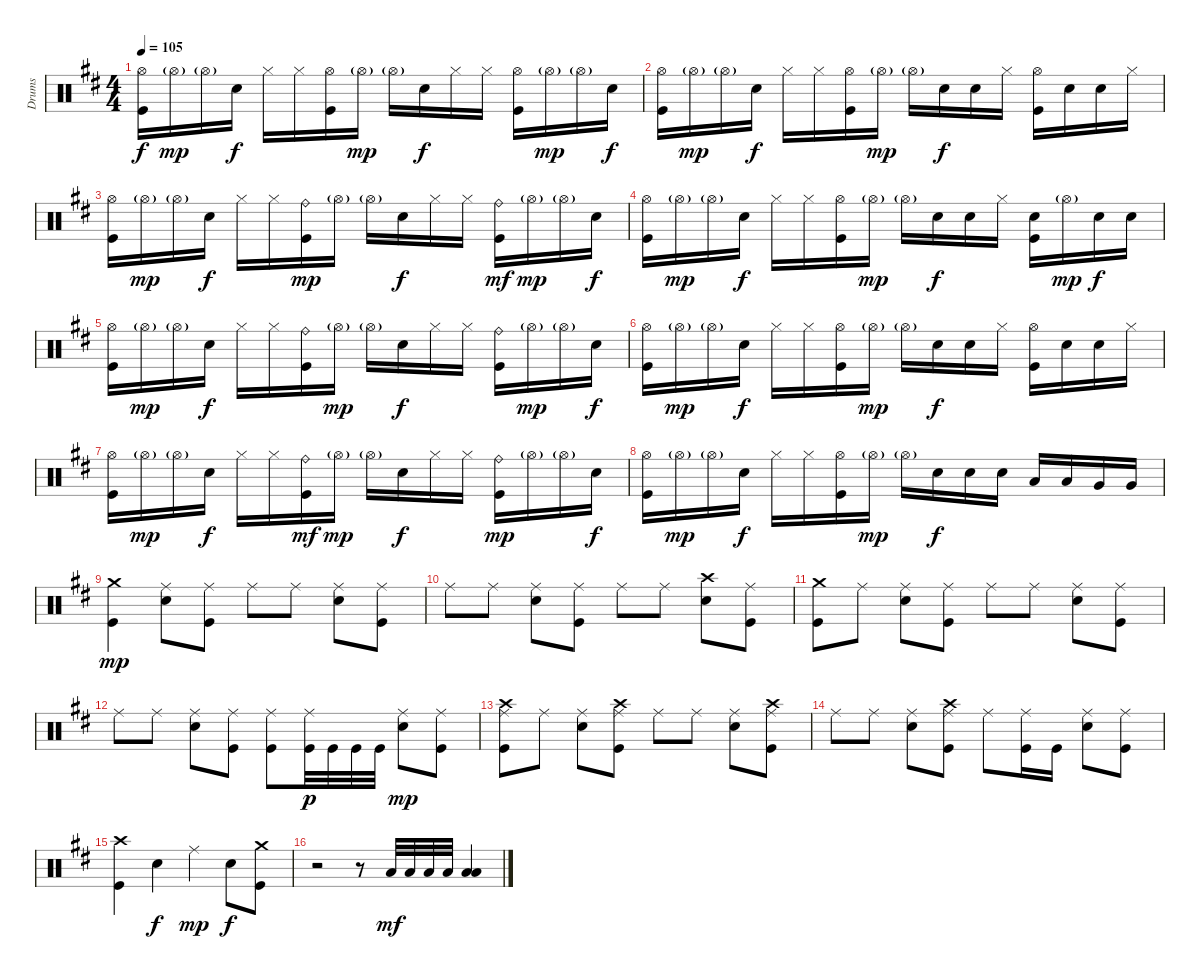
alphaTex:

\track ("Drums" "Drums") {instrument percussion}
\staff {score}
\articulation defaults
\ts (4 4)
\tempo 105
\clef neutral
\ks d
("Hi-Hat (open)" "Kick (hit)").16{dy f} "Hi-Hat (open)"{g}.16{dy mp} "Hi-Hat (open)"{g}.16 "Electric Snare (hit)".16{dy f} "Hi-Hat (closed)".16 "Hi-Hat (closed)".16 ("Hi-Hat (open)" "Kick (hit)").16 "Hi-Hat (open)"{g}.16{dy mp} "Hi-Hat (open)"{g}.16 "Electric Snare (hit)".16{dy f} "Hi-Hat (closed)".16 "Hi-Hat (closed)".16 ("Hi-Hat (open)" "Kick (hit)").16 "Hi-Hat (open)"{g}.16{dy mp} "Hi-Hat (open)"{g}.16 "Electric Snare (hit)".16{dy f} |
("Hi-Hat (open)" "Kick (hit)").16 "Hi-Hat (open)"{g}.16{dy mp} "Hi-Hat (open)"{g}.16 "Electric Snare (hit)".16{dy f} "Hi-Hat (closed)".16 "Hi-Hat (closed)".16 ("Hi-Hat (open)" "Kick (hit)").16 "Hi-Hat (open)"{g}.16{dy mp} "Hi-Hat (open)"{g}.16 "Electric Snare (hit)".16{dy f} "Electric Snare (hit)".16 "Hi-Hat (closed)".16 ("Hi-Hat (open)" "Kick (hit)").16 "Electric Snare (hit)".16 "Electric Snare (hit)".16 "Hi-Hat (closed)".16 |
("Hi-Hat (open)" "Kick (hit)").16 "Hi-Hat (open)"{g}.16{dy mp} "Hi-Hat (open)"{g}.16 "Electric Snare (hit)".16{dy f} "Hi-Hat (closed)".16 "Hi-Hat (closed)".16 ("Ride (bell)" "Kick (hit)").16{dy mp} "Hi-Hat (open)"{g}.16 "Hi-Hat (open)"{g}.16 "Electric Snare (hit)".16{dy f} "Hi-Hat (closed)".16 "Hi-Hat (closed)".16 ("Ride (bell)" "Kick (hit)").16{dy mf} "Hi-Hat (open)"{g}.16{dy mp} "Hi-Hat (open)"{g}.16 "Electric Snare (hit)".16{dy f} |
("Hi-Hat (open)" "Kick (hit)").16 "Hi-Hat (open)"{g}.16{dy mp} "Hi-Hat (open)"{g}.16 "Electric Snare (hit)".16{dy f} "Hi-Hat (closed)".16 "Hi-Hat (closed)".16 ("Hi-Hat (open)" "Kick (hit)").16 "Hi-Hat (open)"{g}.16{dy mp} "Hi-Hat (open)"{g}.16 "Electric Snare (hit)".16{dy f} "Electric Snare (hit)".16 "Hi-Hat (closed)".16 ("Electric Snare (hit)" "Kick (hit)").16 "Hi-Hat (open)"{g}.16{dy mp} "Electric Snare (hit)".16{dy f} "Electric Snare (hit)".16 |
("Hi-Hat (open)" "Kick (hit)").16 "Hi-Hat (open)"{g}.16{dy mp} "Hi-Hat (open)"{g}.16 "Electric Snare (hit)".16{dy f} "Hi-Hat (closed)".16 "Hi-Hat (closed)".16 ("Ride (bell)" "Kick (hit)").16 "Hi-Hat (open)"{g}.16{dy mp} "Hi-Hat (open)"{g}.16 "Electric Snare (hit)".16{dy f} "Hi-Hat (closed)".16 "Hi-Hat (closed)".16 ("Ride (bell)" "Kick (hit)").16 "Hi-Hat (open)"{g}.16{dy mp} "Hi-Hat (open)"{g}.16 "Electric Snare (hit)".16{dy f} |
("Hi-Hat (open)" "Kick (hit)").16 "Hi-Hat (open)"{g}.16{dy mp} "Hi-Hat (open)"{g}.16 "Electric Snare (hit)".16{dy f} "Hi-Hat (closed)".16 "Hi-Hat (closed)".16 ("Hi-Hat (open)" "Kick (hit)").16 "Hi-Hat (open)"{g}.16{dy mp} "Hi-Hat (open)"{g}.16 "Electric Snare (hit)".16{dy f} "Electric Snare (hit)".16 "Hi-Hat (closed)".16 ("Hi-Hat (open)" "Kick (hit)").16 "Electric Snare (hit)".16 "Electric Snare (hit)".16 "Hi-Hat (closed)".16 |
("Hi-Hat (open)" "Kick (hit)").16 "Hi-Hat (open)"{g}.16{dy mp} "Hi-Hat (open)"{g}.16 "Electric Snare (hit)".16{dy f} "Hi-Hat (closed)".16 "Hi-Hat (closed)".16 ("Ride (bell)" "Kick (hit)").16{dy mf} "Hi-Hat (open)"{g}.16{dy mp} "Hi-Hat (open)"{g}.16 "Electric Snare (hit)".16{dy f} "Hi-Hat (closed)".16 "Hi-Hat (closed)".16 ("Ride (bell)" "Kick (hit)").16{dy mp} "Hi-Hat (open)"{g}.16 "Hi-Hat (open)"{g}.16 "Electric Snare (hit)".16{dy f} |
("Hi-Hat (open)" "Kick (hit)").16 "Hi-Hat (open)"{g}.16{dy mp} "Hi-Hat (open)"{g}.16 "Electric Snare (hit)".16{dy f} "Hi-Hat (closed)".16 "Hi-Hat (closed)".16 ("Hi-Hat (open)" "Kick (hit)").16 "Hi-Hat (open)"{g}.16{dy mp} "Hi-Hat (open)"{g}.16 "Electric Snare (hit)".16{dy f} "Electric Snare (hit)".16 "Electric Snare (hit)".16 "Low Tom (hit)".16 "Low Tom (hit)".16 "Very Low Tom (hit)".16 "Very Low Tom (hit)".16 |
("Crash medium (hit)" "Kick (hit)").4{dy mp} ("Ride (middle)" "Electric Snare (hit)").8 ("Ride (middle)" "Kick (hit)").8 "Ride (middle)".8 "Ride (middle)".8 ("Ride (middle)" "Electric Snare (hit)").8 ("Ride (middle)" "Kick (hit)").8 |
"Ride (middle)".8 "Ride (middle)".8 ("Ride (middle)" "Electric Snare (hit)").8 ("Ride (middle)" "Kick (hit)").8 "Ride (middle)".8 "Ride (middle)".8 ("Crash high (hit)" "Electric Snare (hit)").8 ("Ride (middle)" "Kick (hit)").8 |
("Crash medium (hit)" "Kick (hit)").8 "Ride (middle)".8 ("Ride (middle)" "Electric Snare (hit)").8 ("Ride (middle)" "Kick (hit)").8 "Ride (middle)".8 "Ride (middle)".8 ("Ride (middle)" "Electric Snare (hit)").8 ("Ride (middle)" "Kick (hit)").8 |
"Ride (middle)".8 "Ride (middle)".8 ("Ride (middle)" "Electric Snare (hit)").8 ("Ride (middle)" "Kick (hit)").8 ("Ride (middle)" "Kick (hit)").8 ("Ride (middle)" "Kick (hit)").32{dy p} "Kick (hit)".32 "Kick (hit)".32 "Kick (hit)".32 ("Ride (middle)" "Electric Snare (hit)").8{dy mp} ("Ride (middle)" "Kick (hit)").8 |
("Ride (middle)" "Crash high (hit)" "Kick (hit)").8 "Ride (middle)".8 ("Ride (middle)" "Electric Snare (hit)").8 ("Ride (middle)" "Crash high (hit)" "Kick (hit)").8 "Ride (middle)".8 "Ride (middle)".8 ("Ride (middle)" "Electric Snare (hit)").8 ("Ride (middle)" "Crash high (hit)" "Kick (hit)").8 |
"Ride (middle)".8 "Ride (middle)".8 ("Ride (middle)" "Electric Snare (hit)").8 ("Ride (middle)" "Crash high (hit)" "Kick (hit)").8 "Ride (middle)".8 ("Ride (middle)" "Kick (hit)").16 "Kick (hit)".16 ("Ride (middle)" "Electric Snare (hit)").8 ("Ride (middle)" "Kick (hit)").8 |
("Crash high (hit)" "Kick (hit)").4 "Electric Snare (hit)".4{dy f} "Ride (middle)".4{dy mp} "Electric Snare (hit)".8{dy f} ("Crash medium (hit)" "Kick (hit)").8 |
r.2 r.8 "Low Floor Tom (hit)".32{dy mf} "Low Floor Tom (hit)".32 "Low Floor Tom (hit)".32 "Low Floor Tom (hit)".32 ("Low Floor Tom (hit)" "Low Floor Tom (hit)").4
